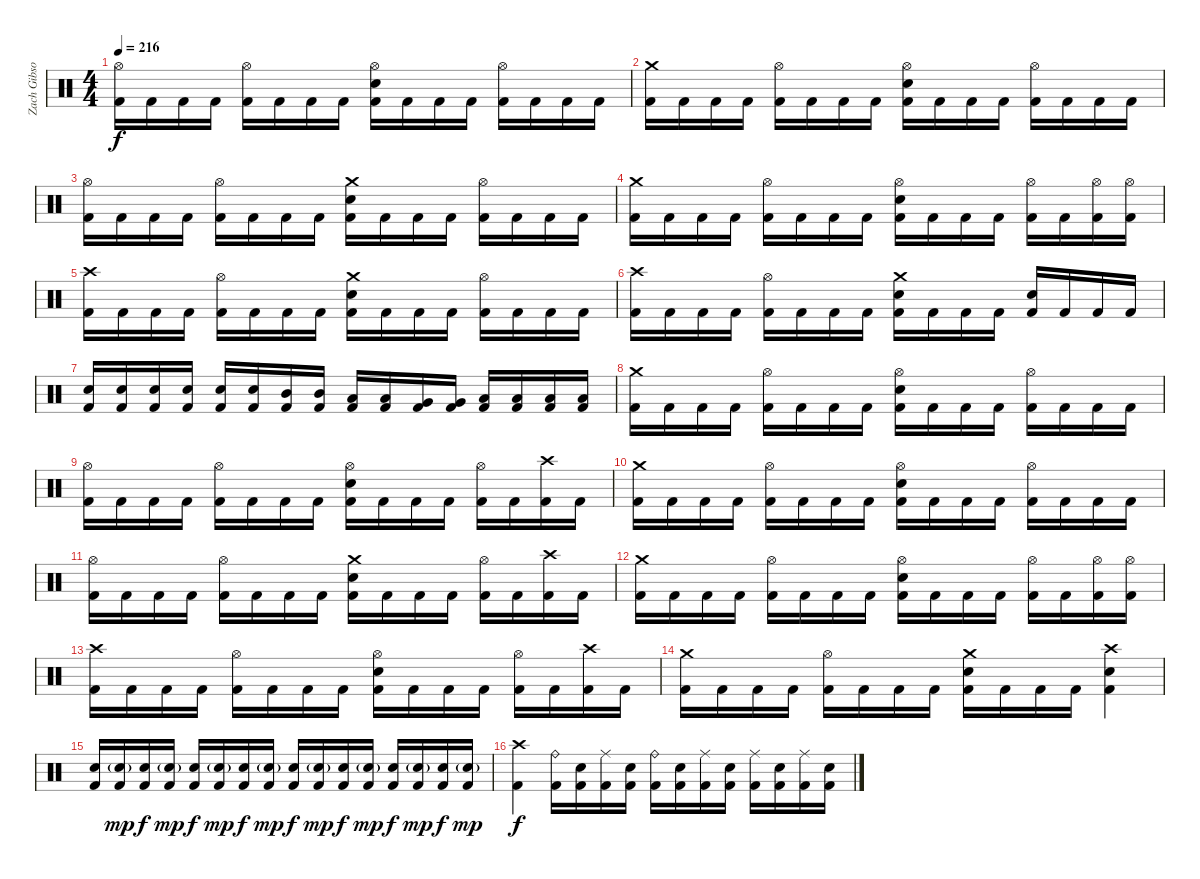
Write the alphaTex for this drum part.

\track ("Zach Gibson (Ex-Drums)" "Zach Gibso") {instrument percussion}
\staff {score}
\articulation defaults
\ts (4 4)
\tempo 216
\clef neutral
\ks c
("Hi-Hat (open)" "Kick (hit) 2").16{dy f} "Kick (hit) 2".16 "Kick (hit) 2".16 "Kick (hit) 2".16 ("Hi-Hat (open)" "Kick (hit) 2").16 "Kick (hit) 2".16 "Kick (hit) 2".16 "Kick (hit) 2".16 ("Hi-Hat (open)" "Snare (hit) 2" "Kick (hit) 2").16 "Kick (hit) 2".16 "Kick (hit) 2".16 "Kick (hit) 2".16 ("Hi-Hat (open)" "Kick (hit) 2").16 "Kick (hit) 2".16 "Kick (hit) 2".16 "Kick (hit) 2".16 |
("Crash medium (hit)" "Kick (hit) 2").16 "Kick (hit) 2".16 "Kick (hit) 2".16 "Kick (hit) 2".16 ("Hi-Hat (open)" "Kick (hit) 2").16 "Kick (hit) 2".16 "Kick (hit) 2".16 "Kick (hit) 2".16 ("Hi-Hat (open)" "Snare (hit) 2" "Kick (hit) 2").16 "Kick (hit) 2".16 "Kick (hit) 2".16 "Kick (hit) 2".16 ("Hi-Hat (open)" "Kick (hit) 2").16 "Kick (hit) 2".16 "Kick (hit) 2".16 "Kick (hit) 2".16 |
("Hi-Hat (open)" "Kick (hit) 2").16 "Kick (hit) 2".16 "Kick (hit) 2".16 "Kick (hit) 2".16 ("Hi-Hat (open)" "Kick (hit) 2").16 "Kick (hit) 2".16 "Kick (hit) 2".16 "Kick (hit) 2".16 ("Crash medium (hit)" "Snare (hit) 2" "Kick (hit) 2").16 "Kick (hit) 2".16 "Kick (hit) 2".16 "Kick (hit) 2".16 ("Hi-Hat (open)" "Kick (hit) 2").16 "Kick (hit) 2".16 "Kick (hit) 2".16 "Kick (hit) 2".16 |
("Crash medium (hit)" "Kick (hit) 2").16 "Kick (hit) 2".16 "Kick (hit) 2".16 "Kick (hit) 2".16 ("Hi-Hat (open)" "Kick (hit) 2").16 "Kick (hit) 2".16 "Kick (hit) 2".16 "Kick (hit) 2".16 ("Hi-Hat (open)" "Snare (hit) 2" "Kick (hit) 2").16 "Kick (hit) 2".16 "Kick (hit) 2".16 "Kick (hit) 2".16 ("Hi-Hat (open)" "Kick (hit) 2").16 "Kick (hit) 2".16 ("Hi-Hat (open)" "Kick (hit) 2").16 ("Hi-Hat (open)" "Kick (hit) 2").16 |
("Crash high (hit)" "Kick (hit) 2").16 "Kick (hit) 2".16 "Kick (hit) 2".16 "Kick (hit) 2".16 ("Hi-Hat (open)" "Kick (hit) 2").16 "Kick (hit) 2".16 "Kick (hit) 2".16 "Kick (hit) 2".16 ("Crash medium (hit)" "Snare (hit) 2" "Kick (hit) 2").16 "Kick (hit) 2".16 "Kick (hit) 2".16 "Kick (hit) 2".16 ("Hi-Hat (open)" "Kick (hit) 2").16 "Kick (hit) 2".16 "Kick (hit) 2".16 "Kick (hit) 2".16 |
("Crash high (hit)" "Kick (hit) 2").16 "Kick (hit) 2".16 "Kick (hit) 2".16 "Kick (hit) 2".16 ("Hi-Hat (open)" "Kick (hit) 2").16 "Kick (hit) 2".16 "Kick (hit) 2".16 "Kick (hit) 2".16 ("Crash medium (hit)" "Snare (hit) 2" "Kick (hit) 2").16 "Kick (hit) 2".16 "Kick (hit) 2".16 "Kick (hit) 2".16 ("Snare (hit) 2" "Kick (hit) 2").16 "Kick (hit) 2".16 "Kick (hit) 2".16 "Kick (hit) 2".16 |
("Snare (hit) 2" "Kick (hit) 2").16 ("Snare (hit) 2" "Kick (hit) 2").16 ("Snare (hit) 2" "Kick (hit) 2").16 ("Snare (hit) 2" "Kick (hit) 2").16 ("Snare (hit) 2" "Kick (hit) 2").16 ("Snare (hit) 2" "Kick (hit) 2").16 ("Mid Tom (hit)" "Kick (hit) 2").16 ("Mid Tom (hit)" "Kick (hit) 2").16 ("Low Tom (hit)" "Kick (hit) 2").16 ("Low Tom (hit)" "Kick (hit) 2").16 ("Very Low Tom (hit)" "Kick (hit) 2").16 ("Very Low Tom (hit)" "Kick (hit) 2").16 ("Low Floor Tom (hit)" "Kick (hit) 2").16 ("Low Floor Tom (hit)" "Kick (hit) 2").16 ("Low Floor Tom (hit)" "Kick (hit) 2").16 ("Low Floor Tom (hit)" "Kick (hit) 2").16 |
("Crash medium (hit)" "Kick (hit) 2").16 "Kick (hit) 2".16 "Kick (hit) 2".16 "Kick (hit) 2".16 ("Hi-Hat (open)" "Kick (hit) 2").16 "Kick (hit) 2".16 "Kick (hit) 2".16 "Kick (hit) 2".16 ("Hi-Hat (open)" "Snare (hit) 2" "Kick (hit) 2").16 "Kick (hit) 2".16 "Kick (hit) 2".16 "Kick (hit) 2".16 ("Hi-Hat (open)" "Kick (hit) 2").16 "Kick (hit) 2".16 "Kick (hit) 2".16 "Kick (hit) 2".16 |
("Hi-Hat (open)" "Kick (hit) 2").16 "Kick (hit) 2".16 "Kick (hit) 2".16 "Kick (hit) 2".16 ("Hi-Hat (open)" "Kick (hit) 2").16 "Kick (hit) 2".16 "Kick (hit) 2".16 "Kick (hit) 2".16 ("Hi-Hat (open)" "Snare (hit) 2" "Kick (hit) 2").16 "Kick (hit) 2".16 "Kick (hit) 2".16 "Kick (hit) 2".16 ("Hi-Hat (open)" "Kick (hit) 2").16 "Kick (hit) 2".16 ("Crash high (hit)" "Kick (hit) 2").16 "Kick (hit) 2".16 |
("Crash medium (hit)" "Kick (hit) 2").16 "Kick (hit) 2".16 "Kick (hit) 2".16 "Kick (hit) 2".16 ("Hi-Hat (open)" "Kick (hit) 2").16 "Kick (hit) 2".16 "Kick (hit) 2".16 "Kick (hit) 2".16 ("Hi-Hat (open)" "Snare (hit) 2" "Kick (hit) 2").16 "Kick (hit) 2".16 "Kick (hit) 2".16 "Kick (hit) 2".16 ("Hi-Hat (open)" "Kick (hit) 2").16 "Kick (hit) 2".16 "Kick (hit) 2".16 "Kick (hit) 2".16 |
("Hi-Hat (open)" "Kick (hit) 2").16 "Kick (hit) 2".16 "Kick (hit) 2".16 "Kick (hit) 2".16 ("Hi-Hat (open)" "Kick (hit) 2").16 "Kick (hit) 2".16 "Kick (hit) 2".16 "Kick (hit) 2".16 ("Crash medium (hit)" "Snare (hit) 2" "Kick (hit) 2").16 "Kick (hit) 2".16 "Kick (hit) 2".16 "Kick (hit) 2".16 ("Hi-Hat (open)" "Kick (hit) 2").16 "Kick (hit) 2".16 ("Crash high (hit)" "Kick (hit) 2").16 "Kick (hit) 2".16 |
("Crash medium (hit)" "Kick (hit) 2").16 "Kick (hit) 2".16 "Kick (hit) 2".16 "Kick (hit) 2".16 ("Hi-Hat (open)" "Kick (hit) 2").16 "Kick (hit) 2".16 "Kick (hit) 2".16 "Kick (hit) 2".16 ("Hi-Hat (open)" "Snare (hit) 2" "Kick (hit) 2").16 "Kick (hit) 2".16 "Kick (hit) 2".16 "Kick (hit) 2".16 ("Hi-Hat (open)" "Kick (hit) 2").16 "Kick (hit) 2".16 ("Hi-Hat (open)" "Kick (hit) 2").16 ("Hi-Hat (open)" "Kick (hit) 2").16 |
("Crash high (hit)" "Kick (hit) 2").16 "Kick (hit) 2".16 "Kick (hit) 2".16 "Kick (hit) 2".16 ("Hi-Hat (open)" "Kick (hit) 2").16 "Kick (hit) 2".16 "Kick (hit) 2".16 "Kick (hit) 2".16 ("Hi-Hat (open)" "Snare (hit) 2" "Kick (hit) 2").16 "Kick (hit) 2".16 "Kick (hit) 2".16 "Kick (hit) 2".16 ("Hi-Hat (open)" "Kick (hit) 2").16 "Kick (hit) 2".16 ("Crash high (hit)" "Kick (hit) 2").16 "Kick (hit) 2".16 |
("Crash medium (hit)" "Kick (hit) 2").16 "Kick (hit) 2".16 "Kick (hit) 2".16 "Kick (hit) 2".16 ("Hi-Hat (open)" "Kick (hit) 2").16 "Kick (hit) 2".16 "Kick (hit) 2".16 "Kick (hit) 2".16 ("Crash medium (hit)" "Snare (hit) 2" "Kick (hit) 2").16 "Kick (hit) 2".16 "Kick (hit) 2".16 "Kick (hit) 2".16 ("Crash high (hit)" "Snare (hit) 2" "Kick (hit) 2").4 |
("Snare (hit) 2" "Kick (hit) 2").16 ("Snare (hit) 2"{g} "Kick (hit) 2").16{dy mp} ("Snare (hit) 2" "Kick (hit) 2").16{dy f} ("Snare (hit) 2"{g} "Kick (hit) 2").16{dy mp} ("Snare (hit) 2" "Kick (hit) 2").16{dy f} ("Snare (hit) 2"{g} "Kick (hit) 2").16{dy mp} ("Snare (hit) 2" "Kick (hit) 2").16{dy f} ("Snare (hit) 2"{g} "Kick (hit) 2").16{dy mp} ("Snare (hit) 2" "Kick (hit) 2").16{dy f} ("Snare (hit) 2"{g} "Kick (hit) 2").16{dy mp} ("Snare (hit) 2" "Kick (hit) 2").16{dy f} ("Snare (hit) 2"{g} "Kick (hit) 2").16{dy mp} ("Snare (hit) 2" "Kick (hit) 2").16{dy f} ("Snare (hit) 2"{g} "Kick (hit) 2").16{dy mp} ("Snare (hit) 2" "Kick (hit) 2").16{dy f} ("Snare (hit) 2"{g} "Kick (hit) 2").16{dy mp} |
("Crash high (hit)" "Kick (hit) 2").4{dy f} ("Ride (bell)" "Kick (hit) 2").16 ("Snare (hit) 2" "Kick (hit) 2").16 ("Ride (middle)" "Kick (hit) 2").16 ("Snare (hit) 2" "Kick (hit) 2").16 ("Ride (bell)" "Kick (hit) 2").16 ("Snare (hit) 2" "Kick (hit) 2").16 ("Ride (middle)" "Kick (hit) 2").16 ("Snare (hit) 2" "Kick (hit) 2").16 ("Ride (middle)" "Kick (hit) 2").16 ("Snare (hit) 2" "Kick (hit) 2").16 ("Ride (middle)" "Kick (hit) 2").16 ("Snare (hit) 2" "Kick (hit) 2").16
